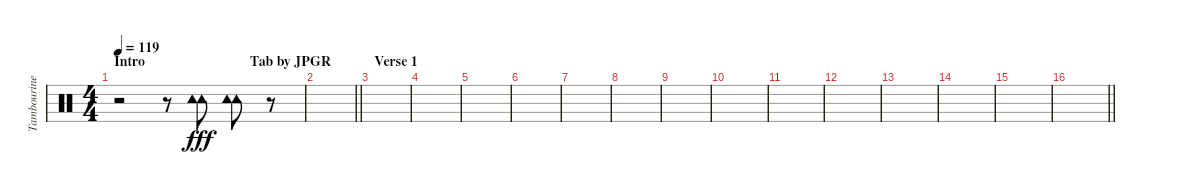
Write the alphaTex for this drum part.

\track ("Tambourine (John Lennon)" "Tambourine") {instrument percussion}
\staff {score}
\articulation defaults
\ts (4 4)
\section ("" "Intro                              Tab by JPGR")
\tempo 119
\clef neutral
\ks c
r.2{dy fff} r.8 ("Tambourine (hit)" "Tambourine (hit)").8{bd 60} ("Tambourine (hit)" "Tambourine (hit)").8{bd 60} r.8 |
\barLineRight lightlight
|
\section ("" "Verse 1")
|
|
|
|
|
|
|
|
|
|
|
|
|
\barLineRight lightlight
